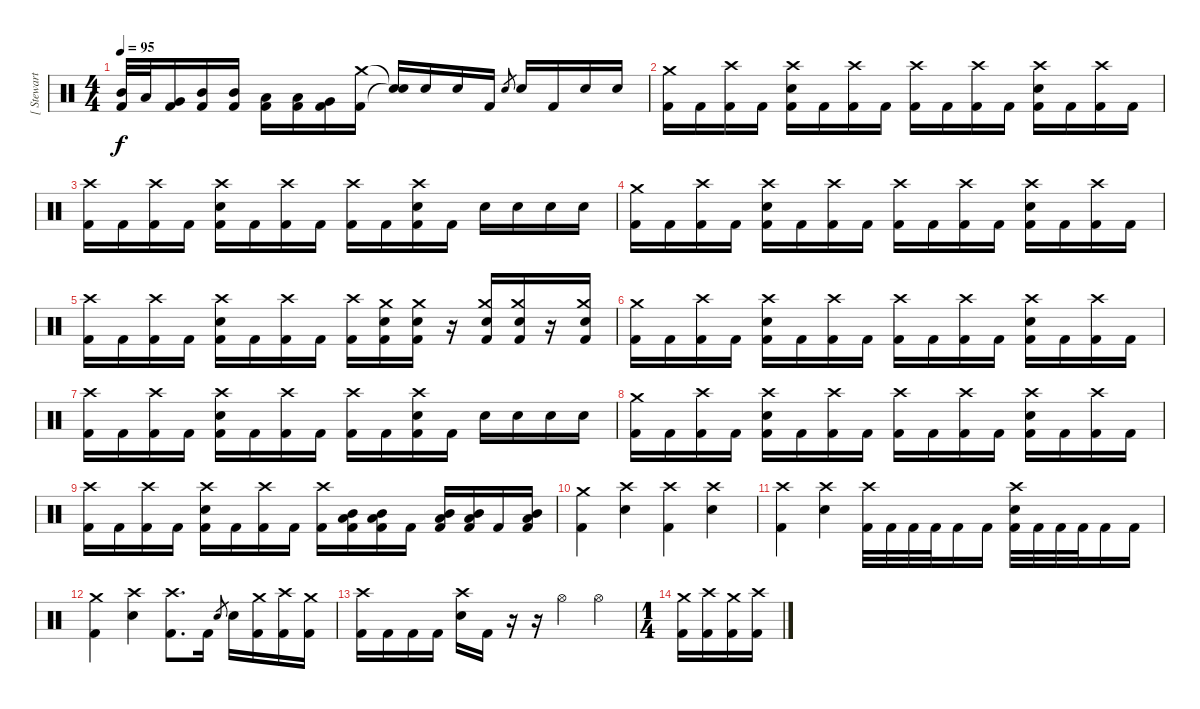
\track ("[ Stewart ] " "[ Stewart ") {instrument percussion}
\staff {score}
\articulation defaults
\ts (4 4)
\tempo 95
\clef neutral
\ks c
("Mid Tom (hit)" "Kick (hit) 2").32{dy f} "Low Tom (hit)".32 ("Very Low Tom (hit)" "Kick (hit) 2").16 ("Mid Tom (hit)" "Kick (hit) 2").16 ("Mid Tom (hit)" "Kick (hit) 2").16 ("Low Tom (hit)" "Kick (hit) 2").16 ("Low Tom (hit)" "Kick (hit) 2").16 ("Very Low Tom (hit)" "Kick (hit) 2").16 ("Kick (hit) 2" "Crash medium (hit)").16 ("Snare (hit)"{t} "Snare (hit)"{t}).16 "Electric Snare (hit)".16 "Electric Snare (hit)".16 "Kick (hit) 2".16 "Electric Snare (hit)".8{gr} "Electric Snare (hit)".16 "Kick (hit) 2".16 "Electric Snare (hit)".16 "Electric Snare (hit)".16 |
("Kick (hit) 2" "Crash medium (hit)").16 "Kick (hit) 2".16 ("Kick (hit) 2" "Crash high (hit)").16 "Kick (hit) 2".16 ("Kick (hit) 2" "Electric Snare (hit)" "Crash high (hit)").16 "Kick (hit) 2".16 ("Kick (hit) 2" "Crash high (hit)").16 "Kick (hit) 2".16 ("Kick (hit) 2" "Crash high (hit)").16 "Kick (hit) 2".16 ("Kick (hit) 2" "Crash high (hit)").16 "Kick (hit) 2".16 ("Kick (hit) 2" "Electric Snare (hit)" "Crash high (hit)").16 "Kick (hit) 2".16 ("Kick (hit) 2" "Crash high (hit)").16 "Kick (hit) 2".16 |
("Kick (hit) 2" "Crash high (hit)").16 "Kick (hit) 2".16 ("Kick (hit) 2" "Crash high (hit)").16 "Kick (hit) 2".16 ("Kick (hit) 2" "Electric Snare (hit)" "Crash high (hit)").16 "Kick (hit) 2".16 ("Kick (hit) 2" "Crash high (hit)").16 "Kick (hit) 2".16 ("Kick (hit) 2" "Crash high (hit)").16 "Kick (hit) 2".16 ("Kick (hit) 2" "Electric Snare (hit)" "Crash high (hit)").16 "Kick (hit) 2".16 "Electric Snare (hit)".16 "Electric Snare (hit)".16 "Electric Snare (hit)".16 "Electric Snare (hit)".16 |
("Kick (hit) 2" "Crash medium (hit)").16 "Kick (hit) 2".16 ("Kick (hit) 2" "Crash high (hit)").16 "Kick (hit) 2".16 ("Kick (hit) 2" "Electric Snare (hit)" "Crash high (hit)").16 "Kick (hit) 2".16 ("Kick (hit) 2" "Crash high (hit)").16 "Kick (hit) 2".16 ("Kick (hit) 2" "Crash high (hit)").16 "Kick (hit) 2".16 ("Kick (hit) 2" "Crash high (hit)").16 "Kick (hit) 2".16 ("Kick (hit) 2" "Electric Snare (hit)" "Crash high (hit)").16 "Kick (hit) 2".16 ("Kick (hit) 2" "Crash high (hit)").16 "Kick (hit) 2".16 |
("Kick (hit) 2" "Crash high (hit)").16 "Kick (hit) 2".16 ("Kick (hit) 2" "Crash high (hit)").16 "Kick (hit) 2".16 ("Kick (hit) 2" "Electric Snare (hit)" "Crash high (hit)").16 "Kick (hit) 2".16 ("Kick (hit) 2" "Crash high (hit)").16 "Kick (hit) 2".16 ("Kick (hit) 2" "Crash high (hit)").16 ("Kick (hit) 2" "Electric Snare (hit)" "Crash medium (hit)").16 ("Kick (hit) 2" "Electric Snare (hit)" "Crash medium (hit)").16 r.16 ("Kick (hit) 2" "Electric Snare (hit)" "Crash medium (hit)").16 ("Kick (hit) 2" "Electric Snare (hit)" "Crash medium (hit)").16 r.16 ("Kick (hit) 2" "Electric Snare (hit)" "Crash medium (hit)").16 |
("Kick (hit) 2" "Crash medium (hit)").16 "Kick (hit) 2".16 ("Kick (hit) 2" "Crash high (hit)").16 "Kick (hit) 2".16 ("Kick (hit) 2" "Electric Snare (hit)" "Crash high (hit)").16 "Kick (hit) 2".16 ("Kick (hit) 2" "Crash high (hit)").16 "Kick (hit) 2".16 ("Kick (hit) 2" "Crash high (hit)").16 "Kick (hit) 2".16 ("Kick (hit) 2" "Crash high (hit)").16 "Kick (hit) 2".16 ("Kick (hit) 2" "Electric Snare (hit)" "Crash high (hit)").16 "Kick (hit) 2".16 ("Kick (hit) 2" "Crash high (hit)").16 "Kick (hit) 2".16 |
("Kick (hit) 2" "Crash high (hit)").16 "Kick (hit) 2".16 ("Kick (hit) 2" "Crash high (hit)").16 "Kick (hit) 2".16 ("Kick (hit) 2" "Electric Snare (hit)" "Crash high (hit)").16 "Kick (hit) 2".16 ("Kick (hit) 2" "Crash high (hit)").16 "Kick (hit) 2".16 ("Kick (hit) 2" "Crash high (hit)").16 "Kick (hit) 2".16 ("Kick (hit) 2" "Electric Snare (hit)" "Crash high (hit)").16 "Kick (hit) 2".16 "Electric Snare (hit)".16 "Electric Snare (hit)".16 "Electric Snare (hit)".16 "Electric Snare (hit)".16 |
("Kick (hit) 2" "Crash medium (hit)").16 "Kick (hit) 2".16 ("Kick (hit) 2" "Crash high (hit)").16 "Kick (hit) 2".16 ("Kick (hit) 2" "Electric Snare (hit)" "Crash high (hit)").16 "Kick (hit) 2".16 ("Kick (hit) 2" "Crash high (hit)").16 "Kick (hit) 2".16 ("Kick (hit) 2" "Crash high (hit)").16 "Kick (hit) 2".16 ("Kick (hit) 2" "Crash high (hit)").16 "Kick (hit) 2".16 ("Kick (hit) 2" "Electric Snare (hit)" "Crash high (hit)").16 "Kick (hit) 2".16 ("Kick (hit) 2" "Crash high (hit)").16 "Kick (hit) 2".16 |
("Kick (hit) 2" "Crash high (hit)").16 "Kick (hit) 2".16 ("Kick (hit) 2" "Crash high (hit)").16 "Kick (hit) 2".16 ("Kick (hit) 2" "Electric Snare (hit)" "Crash high (hit)").16 "Kick (hit) 2".16 ("Kick (hit) 2" "Crash high (hit)").16 "Kick (hit) 2".16 ("Kick (hit) 2" "Crash high (hit)").16 ("Kick (hit) 2" "Mid Tom (hit)" "Low Tom (hit)").16 ("Kick (hit) 2" "Mid Tom (hit)" "Low Tom (hit)").16 "Kick (hit) 2".16 ("Kick (hit) 2" "Mid Tom (hit)" "Low Tom (hit)").16 ("Kick (hit) 2" "Mid Tom (hit)" "Low Tom (hit)").16 "Kick (hit) 2".16 ("Kick (hit) 2" "Mid Tom (hit)" "Low Tom (hit)").16 |
("Kick (hit) 2" "Crash medium (hit)").4 ("Electric Snare (hit)" "Crash high (hit)").4 ("Kick (hit) 2" "Crash high (hit)").4 ("Electric Snare (hit)" "Crash high (hit)").4 |
("Kick (hit) 2" "Crash high (hit)").4 ("Electric Snare (hit)" "Crash high (hit)").4 ("Kick (hit) 2" "Crash high (hit)").32 "Kick (hit) 2".32 "Kick (hit) 2".32 "Kick (hit) 2".32 "Kick (hit) 2".16 "Kick (hit) 2".16 ("Kick (hit) 2" "Electric Snare (hit)" "Crash high (hit)").32 "Kick (hit) 2".32 "Kick (hit) 2".32 "Kick (hit) 2".32 "Kick (hit) 2".16 "Kick (hit) 2".16 |
("Kick (hit) 2" "Crash medium (hit)").4 ("Electric Snare (hit)" "Crash high (hit)").4 ("Kick (hit) 2" "Crash high (hit)").8{d} "Kick (hit) 2".16 "Electric Snare (hit)".8{gr} "Electric Snare (hit)".16 ("Kick (hit) 2" "Crash medium (hit)").16 ("Kick (hit) 2" "Crash high (hit)").16 ("Kick (hit) 2" "Crash medium (hit)").16 |
("Kick (hit) 2" "Crash high (hit)").16 "Kick (hit) 2".16 "Kick (hit) 2".16 "Kick (hit) 2".16 ("Electric Snare (hit)" "Crash high (hit)").16 "Kick (hit) 2".16 r.16 r.16 "Hi-Hat (open)".4 "Hi-Hat (open)".4 |
\ts (1 4)
("Kick (hit) 2" "Crash medium (hit)").16 ("Kick (hit) 2" "Crash high (hit)").16 ("Kick (hit) 2" "Crash medium (hit)").16 ("Kick (hit) 2" "Crash high (hit)").16
